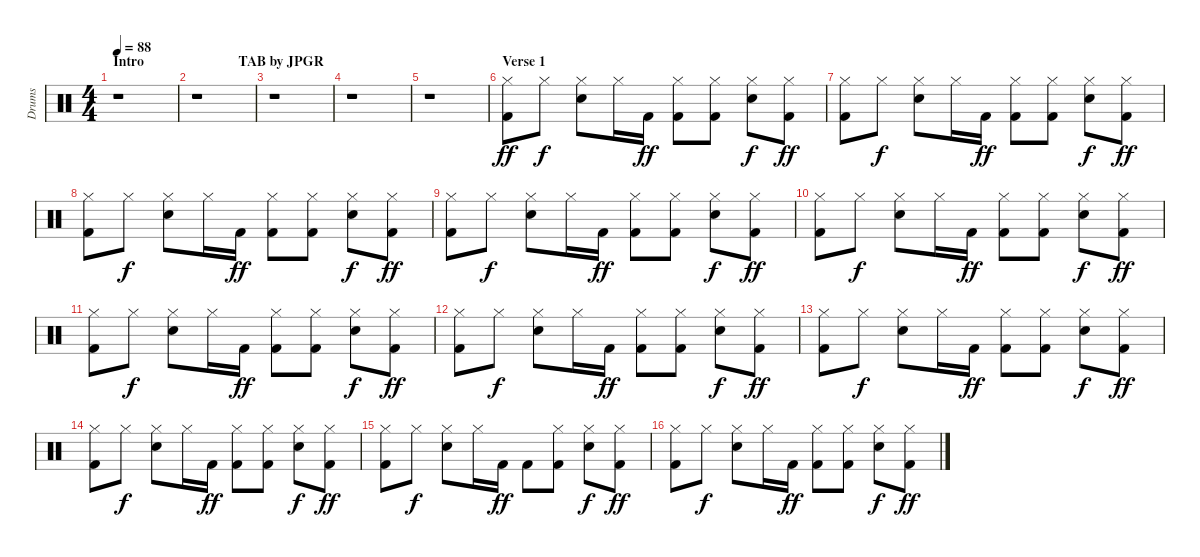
\track ("Drums" "Drums") {instrument percussion}
\staff {score}
\articulation defaults
\ts (4 4)
\section ("" "Intro                           TAB by JPGR")
\tempo 88
\clef neutral
\ks c
r.1{dy ff} |
r.1 |
r.1 |
r.1 |
r.1 |
\section ("" "Verse 1")
("Hi-Hat (closed)" "Kick (hit) 2").8 "Hi-Hat (closed)".8{dy f} ("Hi-Hat (closed)" "Electric Snare (hit)").8 "Hi-Hat (closed)".16 "Kick (hit) 2".16{dy ff} ("Hi-Hat (closed)" "Kick (hit) 2").8 ("Hi-Hat (closed)" "Kick (hit) 2").8 ("Hi-Hat (closed)" "Electric Snare (hit)").8{dy f} ("Hi-Hat (closed)" "Kick (hit) 2").8{dy ff} |
("Hi-Hat (closed)" "Kick (hit) 2").8 "Hi-Hat (closed)".8{dy f} ("Hi-Hat (closed)" "Electric Snare (hit)").8 "Hi-Hat (closed)".16 "Kick (hit) 2".16{dy ff} ("Hi-Hat (closed)" "Kick (hit) 2").8 ("Hi-Hat (closed)" "Kick (hit) 2").8 ("Hi-Hat (closed)" "Electric Snare (hit)").8{dy f} ("Hi-Hat (closed)" "Kick (hit) 2").8{dy ff} |
("Hi-Hat (closed)" "Kick (hit) 2").8 "Hi-Hat (closed)".8{dy f} ("Hi-Hat (closed)" "Electric Snare (hit)").8 "Hi-Hat (closed)".16 "Kick (hit) 2".16{dy ff} ("Hi-Hat (closed)" "Kick (hit) 2").8 ("Hi-Hat (closed)" "Kick (hit) 2").8 ("Hi-Hat (closed)" "Electric Snare (hit)").8{dy f} ("Hi-Hat (closed)" "Kick (hit) 2").8{dy ff} |
("Hi-Hat (closed)" "Kick (hit) 2").8 "Hi-Hat (closed)".8{dy f} ("Hi-Hat (closed)" "Electric Snare (hit)").8 "Hi-Hat (closed)".16 "Kick (hit) 2".16{dy ff} ("Hi-Hat (closed)" "Kick (hit) 2").8 ("Hi-Hat (closed)" "Kick (hit) 2").8 ("Hi-Hat (closed)" "Electric Snare (hit)").8{dy f} ("Hi-Hat (closed)" "Kick (hit) 2").8{dy ff} |
("Hi-Hat (closed)" "Kick (hit) 2").8 "Hi-Hat (closed)".8{dy f} ("Hi-Hat (closed)" "Electric Snare (hit)").8 "Hi-Hat (closed)".16 "Kick (hit) 2".16{dy ff} ("Hi-Hat (closed)" "Kick (hit) 2").8 ("Hi-Hat (closed)" "Kick (hit) 2").8 ("Hi-Hat (closed)" "Electric Snare (hit)").8{dy f} ("Hi-Hat (closed)" "Kick (hit) 2").8{dy ff} |
("Hi-Hat (closed)" "Kick (hit) 2").8 "Hi-Hat (closed)".8{dy f} ("Hi-Hat (closed)" "Electric Snare (hit)").8 "Hi-Hat (closed)".16 "Kick (hit) 2".16{dy ff} ("Hi-Hat (closed)" "Kick (hit) 2").8 ("Hi-Hat (closed)" "Kick (hit) 2").8 ("Hi-Hat (closed)" "Electric Snare (hit)").8{dy f} ("Hi-Hat (closed)" "Kick (hit) 2").8{dy ff} |
("Hi-Hat (closed)" "Kick (hit) 2").8 "Hi-Hat (closed)".8{dy f} ("Hi-Hat (closed)" "Electric Snare (hit)").8 "Hi-Hat (closed)".16 "Kick (hit) 2".16{dy ff} ("Hi-Hat (closed)" "Kick (hit) 2").8 ("Hi-Hat (closed)" "Kick (hit) 2").8 ("Hi-Hat (closed)" "Electric Snare (hit)").8{dy f} ("Hi-Hat (closed)" "Kick (hit) 2").8{dy ff} |
("Hi-Hat (closed)" "Kick (hit) 2").8 "Hi-Hat (closed)".8{dy f} ("Hi-Hat (closed)" "Electric Snare (hit)").8 "Hi-Hat (closed)".16 "Kick (hit) 2".16{dy ff} ("Hi-Hat (closed)" "Kick (hit) 2").8 ("Hi-Hat (closed)" "Kick (hit) 2").8 ("Hi-Hat (closed)" "Electric Snare (hit)").8{dy f} ("Hi-Hat (closed)" "Kick (hit) 2").8{dy ff} |
("Hi-Hat (closed)" "Kick (hit) 2").8 "Hi-Hat (closed)".8{dy f} ("Hi-Hat (closed)" "Electric Snare (hit)").8 "Hi-Hat (closed)".16 "Kick (hit) 2".16{dy ff} ("Hi-Hat (closed)" "Kick (hit) 2").8 ("Hi-Hat (closed)" "Kick (hit) 2").8 ("Hi-Hat (closed)" "Electric Snare (hit)").8{dy f} ("Hi-Hat (closed)" "Kick (hit) 2").8{dy ff} |
("Hi-Hat (closed)" "Kick (hit) 2").8 "Hi-Hat (closed)".8{dy f} ("Hi-Hat (closed)" "Electric Snare (hit)").8 "Hi-Hat (closed)".16 "Kick (hit) 2".16{dy ff} "Kick (hit) 2".8 ("Hi-Hat (closed)" "Kick (hit) 2").8 ("Hi-Hat (closed)" "Electric Snare (hit)").8{dy f} ("Hi-Hat (closed)" "Kick (hit) 2").8{dy ff} |
("Hi-Hat (closed)" "Kick (hit) 2").8 "Hi-Hat (closed)".8{dy f} ("Hi-Hat (closed)" "Electric Snare (hit)").8 "Hi-Hat (closed)".16 "Kick (hit) 2".16{dy ff} ("Hi-Hat (closed)" "Kick (hit) 2").8 ("Hi-Hat (closed)" "Kick (hit) 2").8 ("Hi-Hat (closed)" "Electric Snare (hit)").8{dy f} ("Hi-Hat (closed)" "Kick (hit) 2").8{dy ff}
